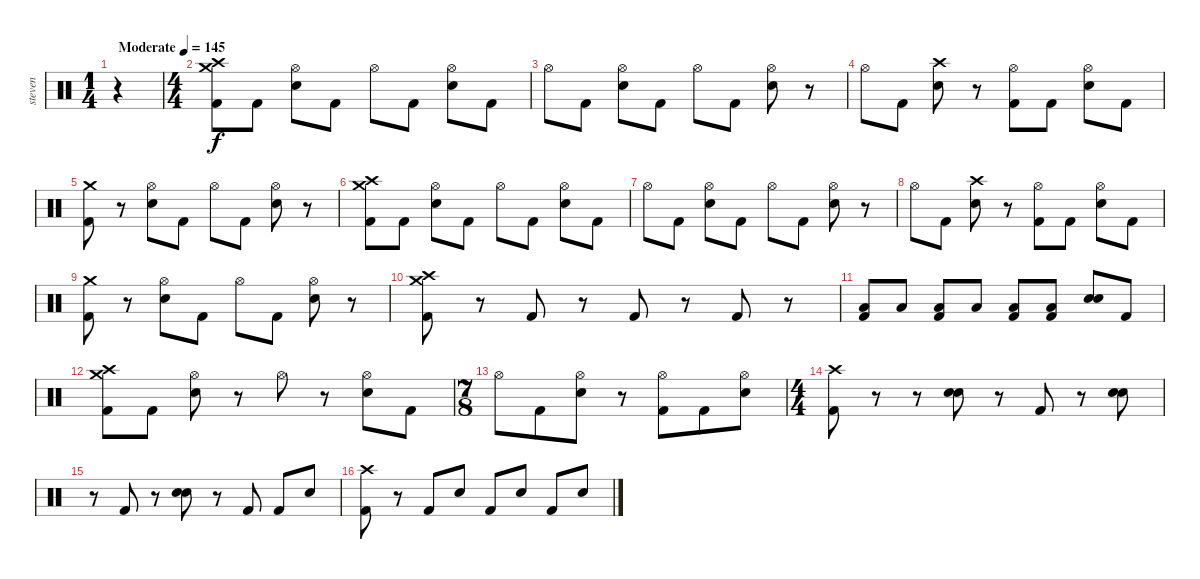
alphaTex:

\track ("steven" "steven") {instrument percussion}
\staff {score}
\articulation defaults
\ts (1 4)
\tempo (145 "Moderate")
\clef neutral
\ks c
r.4{dy f} |
\ts (4 4)
("Crash medium (hit)" "Crash high (hit)" "Kick (hit) 2").8 "Kick (hit) 2".8 ("Hi-Hat (open)" "Electric Snare (hit)").8 "Kick (hit) 2".8 "Hi-Hat (open)".8 "Kick (hit) 2".8 ("Hi-Hat (open)" "Electric Snare (hit)").8 "Kick (hit) 2".8 |
"Hi-Hat (open)".8 "Kick (hit) 2".8 ("Hi-Hat (open)" "Electric Snare (hit)").8 "Kick (hit) 2".8 "Hi-Hat (open)".8 "Kick (hit) 2".8 ("Hi-Hat (open)" "Electric Snare (hit)").8 r.8 |
"Hi-Hat (open)".8 "Kick (hit) 2".8 ("Crash high (hit)" "Electric Snare (hit)").8 r.8 ("Hi-Hat (open)" "Kick (hit) 2").8 "Kick (hit) 2".8 ("Hi-Hat (open)" "Electric Snare (hit)").8 "Kick (hit) 2".8 |
("Crash medium (hit)" "Kick (hit) 2").8 r.8 ("Hi-Hat (open)" "Electric Snare (hit)").8 "Kick (hit) 2".8 "Hi-Hat (open)".8 "Kick (hit) 2".8 ("Hi-Hat (open)" "Electric Snare (hit)").8 r.8 |
("Crash medium (hit)" "Crash high (hit)" "Kick (hit) 2").8 "Kick (hit) 2".8 ("Hi-Hat (open)" "Electric Snare (hit)").8 "Kick (hit) 2".8 "Hi-Hat (open)".8 "Kick (hit) 2".8 ("Hi-Hat (open)" "Electric Snare (hit)").8 "Kick (hit) 2".8 |
"Hi-Hat (open)".8 "Kick (hit) 2".8 ("Hi-Hat (open)" "Electric Snare (hit)").8 "Kick (hit) 2".8 "Hi-Hat (open)".8 "Kick (hit) 2".8 ("Hi-Hat (open)" "Electric Snare (hit)").8 r.8 |
"Hi-Hat (open)".8 "Kick (hit) 2".8 ("Crash high (hit)" "Electric Snare (hit)").8 r.8 ("Hi-Hat (open)" "Kick (hit) 2").8 "Kick (hit) 2".8 ("Hi-Hat (open)" "Electric Snare (hit)").8 "Kick (hit) 2".8 |
("Crash medium (hit)" "Kick (hit) 2").8 r.8 ("Hi-Hat (open)" "Electric Snare (hit)").8 "Kick (hit) 2".8 "Hi-Hat (open)".8 "Kick (hit) 2".8 ("Hi-Hat (open)" "Electric Snare (hit)").8 r.8 |
("Crash medium (hit)" "Crash high (hit)" "Kick (hit) 2").8 r.8 "Kick (hit) 2".8 r.8 "Kick (hit) 2".8 r.8 "Kick (hit) 2".8 r.8 |
("Low Floor Tom (hit)" "Kick (hit) 2").8 "Low Floor Tom (hit)".8 ("Low Floor Tom (hit)" "Kick (hit) 2").8 "Low Floor Tom (hit)".8 ("Low Floor Tom (hit)" "Kick (hit) 2").8 ("Low Floor Tom (hit)" "Kick (hit) 2").8 ("Electric Snare (hit)" "Electric Snare (hit)").8 "Kick (hit) 2".8 |
("Crash medium (hit)" "Crash high (hit)" "Kick (hit) 2").8 "Kick (hit) 2".8 ("Hi-Hat (open)" "Electric Snare (hit)").8 r.8 "Hi-Hat (open)".8 r.8 ("Hi-Hat (open)" "Electric Snare (hit)").8 "Kick (hit) 2".8 |
\ts (7 8)
"Hi-Hat (open)".8 "Kick (hit) 2".8 ("Hi-Hat (open)" "Electric Snare (hit)").8 r.8 ("Hi-Hat (open)" "Kick (hit) 2").8 "Kick (hit) 2".8 ("Hi-Hat (open)" "Electric Snare (hit)").8 |
\ts (4 4)
("Crash high (hit)" "Kick (hit) 2").8 r.8 r.8 ("Electric Snare (hit)" "Electric Snare (hit)").8 r.8 "Kick (hit) 2".8 r.8 ("Electric Snare (hit)" "Electric Snare (hit)").8 |
r.8 "Kick (hit) 2".8 r.8 ("Electric Snare (hit)" "Electric Snare (hit)").8 r.8 "Kick (hit) 2".8 "Kick (hit) 2".8 "Electric Snare (hit)".8 |
("Crash high (hit)" "Kick (hit) 2").8 r.8 "Kick (hit) 2".8 "Electric Snare (hit)".8 "Kick (hit) 2".8 "Electric Snare (hit)".8 "Kick (hit) 2".8 "Electric Snare (hit)".8
